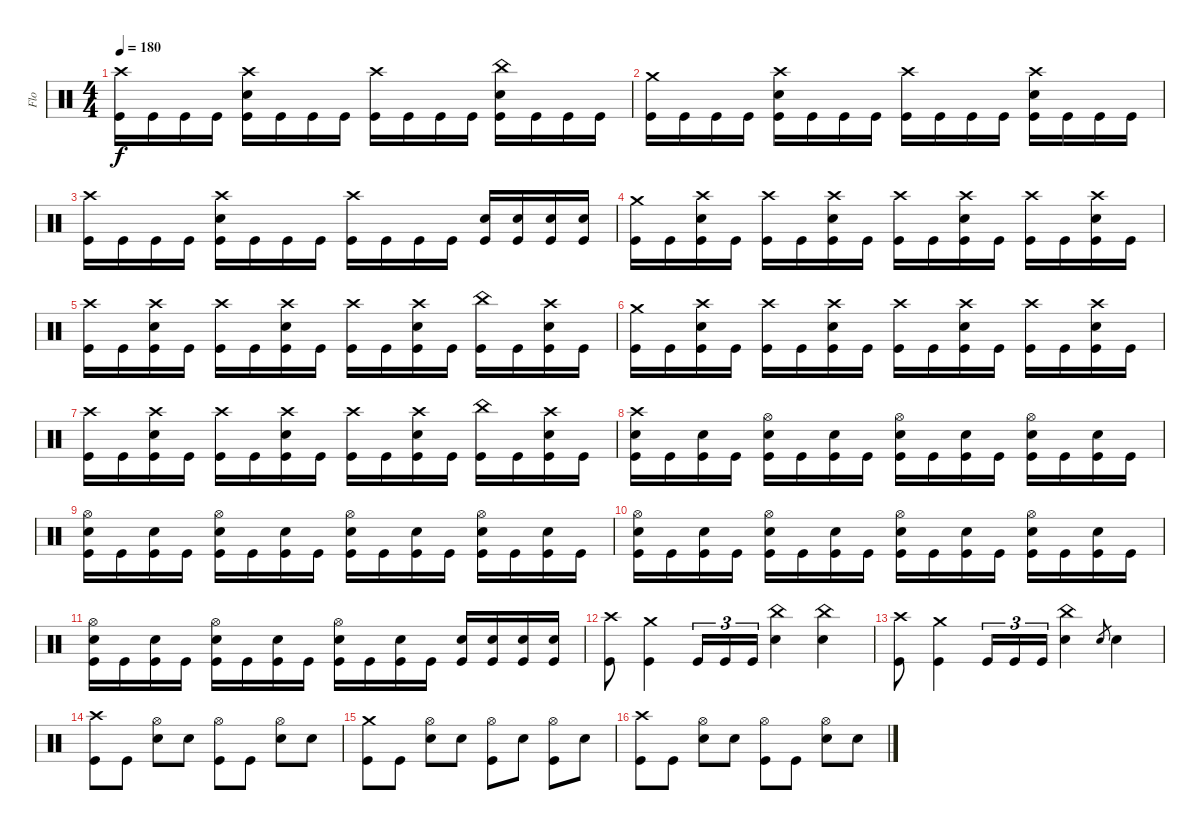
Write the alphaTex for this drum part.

\track ("Flo" "Flo") {instrument percussion}
\staff {score}
\articulation defaults
\ts (4 4)
\tempo 180
\clef neutral
\ks c
("Crash high (hit)" "Kick (hit)").16{dy f} "Kick (hit)".16 "Kick (hit)".16 "Kick (hit)".16 ("Crash high (hit)" "Snare (hit) 2" "Kick (hit)").16 "Kick (hit)".16 "Kick (hit)".16 "Kick (hit)".16 ("Crash high (hit)" "Kick (hit)").16 "Kick (hit)".16 "Kick (hit)".16 "Kick (hit)".16 ("China (hit)" "Snare (hit) 2" "Kick (hit)").16 "Kick (hit)".16 "Kick (hit)".16 "Kick (hit)".16 |
("Crash medium (hit)" "Kick (hit)").16 "Kick (hit)".16 "Kick (hit)".16 "Kick (hit)".16 ("Crash high (hit)" "Snare (hit) 2" "Kick (hit)").16 "Kick (hit)".16 "Kick (hit)".16 "Kick (hit)".16 ("Crash high (hit)" "Kick (hit)").16 "Kick (hit)".16 "Kick (hit)".16 "Kick (hit)".16 ("Crash high (hit)" "Snare (hit) 2" "Kick (hit)").16 "Kick (hit)".16 "Kick (hit)".16 "Kick (hit)".16 |
("Crash high (hit)" "Kick (hit)").16 "Kick (hit)".16 "Kick (hit)".16 "Kick (hit)".16 ("Crash high (hit)" "Snare (hit) 2" "Kick (hit)").16 "Kick (hit)".16 "Kick (hit)".16 "Kick (hit)".16 ("Crash high (hit)" "Kick (hit)").16 "Kick (hit)".16 "Kick (hit)".16 "Kick (hit)".16 ("Snare (hit) 2" "Kick (hit)").16 ("Snare (hit) 2" "Kick (hit)").16 ("Snare (hit) 2" "Kick (hit)").16 ("Snare (hit) 2" "Kick (hit)").16 |
("Crash medium (hit)" "Kick (hit)").16 "Kick (hit)".16 ("Crash high (hit)" "Snare (hit) 2" "Kick (hit)").16 "Kick (hit)".16 ("Crash high (hit)" "Kick (hit)").16 "Kick (hit)".16 ("Crash high (hit)" "Snare (hit) 2" "Kick (hit)").16 "Kick (hit)".16 ("Crash high (hit)" "Kick (hit)").16 "Kick (hit)".16 ("Crash high (hit)" "Snare (hit) 2" "Kick (hit)").16 "Kick (hit)".16 ("Crash high (hit)" "Kick (hit)").16 "Kick (hit)".16 ("Crash high (hit)" "Snare (hit) 2" "Kick (hit)").16 "Kick (hit)".16 |
("Crash high (hit)" "Kick (hit)").16 "Kick (hit)".16 ("Crash high (hit)" "Snare (hit) 2" "Kick (hit)").16 "Kick (hit)".16 ("Crash high (hit)" "Kick (hit)").16 "Kick (hit)".16 ("Crash high (hit)" "Snare (hit) 2" "Kick (hit)").16 "Kick (hit)".16 ("Crash high (hit)" "Kick (hit)").16 "Kick (hit)".16 ("Crash high (hit)" "Snare (hit) 2" "Kick (hit)").16 "Kick (hit)".16 ("China (hit)" "Kick (hit)").16 "Kick (hit)".16 ("Crash high (hit)" "Snare (hit) 2" "Kick (hit)").16 "Kick (hit)".16 |
("Crash medium (hit)" "Kick (hit)").16 "Kick (hit)".16 ("Crash high (hit)" "Snare (hit) 2" "Kick (hit)").16 "Kick (hit)".16 ("Crash high (hit)" "Kick (hit)").16 "Kick (hit)".16 ("Crash high (hit)" "Snare (hit) 2" "Kick (hit)").16 "Kick (hit)".16 ("Crash high (hit)" "Kick (hit)").16 "Kick (hit)".16 ("Crash high (hit)" "Snare (hit) 2" "Kick (hit)").16 "Kick (hit)".16 ("Crash high (hit)" "Kick (hit)").16 "Kick (hit)".16 ("Crash high (hit)" "Snare (hit) 2" "Kick (hit)").16 "Kick (hit)".16 |
("Crash high (hit)" "Kick (hit)").16 "Kick (hit)".16 ("Crash high (hit)" "Snare (hit) 2" "Kick (hit)").16 "Kick (hit)".16 ("Crash high (hit)" "Kick (hit)").16 "Kick (hit)".16 ("Crash high (hit)" "Snare (hit) 2" "Kick (hit)").16 "Kick (hit)".16 ("Crash high (hit)" "Kick (hit)").16 "Kick (hit)".16 ("Crash high (hit)" "Snare (hit) 2" "Kick (hit)").16 "Kick (hit)".16 ("China (hit)" "Kick (hit)").16 "Kick (hit)".16 ("Crash high (hit)" "Snare (hit) 2" "Kick (hit)").16 "Kick (hit)".16 |
("Crash high (hit)" "Snare (hit) 2" "Kick (hit)").16 "Kick (hit)".16 ("Snare (hit) 2" "Kick (hit)").16 "Kick (hit)".16 ("Hi-Hat (open)" "Snare (hit) 2" "Kick (hit)").16 "Kick (hit)".16 ("Snare (hit) 2" "Kick (hit)").16 "Kick (hit)".16 ("Hi-Hat (open)" "Snare (hit) 2" "Kick (hit)").16 "Kick (hit)".16 ("Snare (hit) 2" "Kick (hit)").16 "Kick (hit)".16 ("Hi-Hat (open)" "Snare (hit) 2" "Kick (hit)").16 "Kick (hit)".16 ("Snare (hit) 2" "Kick (hit)").16 "Kick (hit)".16 |
("Hi-Hat (open)" "Snare (hit) 2" "Kick (hit)").16 "Kick (hit)".16 ("Snare (hit) 2" "Kick (hit)").16 "Kick (hit)".16 ("Hi-Hat (open)" "Snare (hit) 2" "Kick (hit)").16 "Kick (hit)".16 ("Snare (hit) 2" "Kick (hit)").16 "Kick (hit)".16 ("Hi-Hat (open)" "Snare (hit) 2" "Kick (hit)").16 "Kick (hit)".16 ("Snare (hit) 2" "Kick (hit)").16 "Kick (hit)".16 ("Hi-Hat (open)" "Snare (hit) 2" "Kick (hit)").16 "Kick (hit)".16 ("Snare (hit) 2" "Kick (hit)").16 "Kick (hit)".16 |
("Hi-Hat (open)" "Snare (hit) 2" "Kick (hit)").16 "Kick (hit)".16 ("Snare (hit) 2" "Kick (hit)").16 "Kick (hit)".16 ("Hi-Hat (open)" "Snare (hit) 2" "Kick (hit)").16 "Kick (hit)".16 ("Snare (hit) 2" "Kick (hit)").16 "Kick (hit)".16 ("Hi-Hat (open)" "Snare (hit) 2" "Kick (hit)").16 "Kick (hit)".16 ("Snare (hit) 2" "Kick (hit)").16 "Kick (hit)".16 ("Hi-Hat (open)" "Snare (hit) 2" "Kick (hit)").16 "Kick (hit)".16 ("Snare (hit) 2" "Kick (hit)").16 "Kick (hit)".16 |
("Hi-Hat (open)" "Snare (hit) 2" "Kick (hit)").16 "Kick (hit)".16 ("Snare (hit) 2" "Kick (hit)").16 "Kick (hit)".16 ("Hi-Hat (open)" "Snare (hit) 2" "Kick (hit)").16 "Kick (hit)".16 ("Snare (hit) 2" "Kick (hit)").16 "Kick (hit)".16 ("Hi-Hat (open)" "Snare (hit) 2" "Kick (hit)").16 "Kick (hit)".16 ("Snare (hit) 2" "Kick (hit)").16 "Kick (hit)".16 ("Snare (hit) 2" "Kick (hit)").16 ("Snare (hit) 2" "Kick (hit)").16 ("Snare (hit) 2" "Kick (hit)").16 ("Snare (hit) 2" "Kick (hit)").16 |
("Crash high (hit)" "Kick (hit)").8 ("Crash medium (hit)" "Kick (hit)").4 "Kick (hit)".16{tu (3 2)} "Kick (hit)".16{tu (3 2)} "Kick (hit)".16{tu (3 2)} ("China (hit)" "Snare (hit) 2").4 ("China (hit)" "Snare (hit) 2").4 |
("Crash high (hit)" "Kick (hit)").8 ("Crash medium (hit)" "Kick (hit)").4 "Kick (hit)".16{tu (3 2)} "Kick (hit)".16{tu (3 2)} "Kick (hit)".16{tu (3 2)} ("China (hit)" "Snare (hit) 2").4 "Snare (hit) 2".8{gr} "Snare (hit) 2".4 |
("Crash high (hit)" "Kick (hit)").8 "Kick (hit)".8 ("Hi-Hat (open)" "Snare (hit) 2").8 "Snare (hit) 2".8 ("Hi-Hat (open)" "Kick (hit)").8 "Kick (hit)".8 ("Hi-Hat (open)" "Snare (hit) 2").8 "Snare (hit) 2".8 |
("Crash medium (hit)" "Kick (hit)").8 "Kick (hit)".8 ("Hi-Hat (open)" "Snare (hit) 2").8 "Snare (hit) 2".8 ("Hi-Hat (open)" "Kick (hit)").8 "Snare (hit) 2".8 ("Hi-Hat (open)" "Kick (hit)").8 "Snare (hit) 2".8 |
("Crash high (hit)" "Kick (hit)").8 "Kick (hit)".8 ("Hi-Hat (open)" "Snare (hit) 2").8 "Snare (hit) 2".8 ("Hi-Hat (open)" "Kick (hit)").8 "Kick (hit)".8 ("Hi-Hat (open)" "Snare (hit) 2").8 "Snare (hit) 2".8
